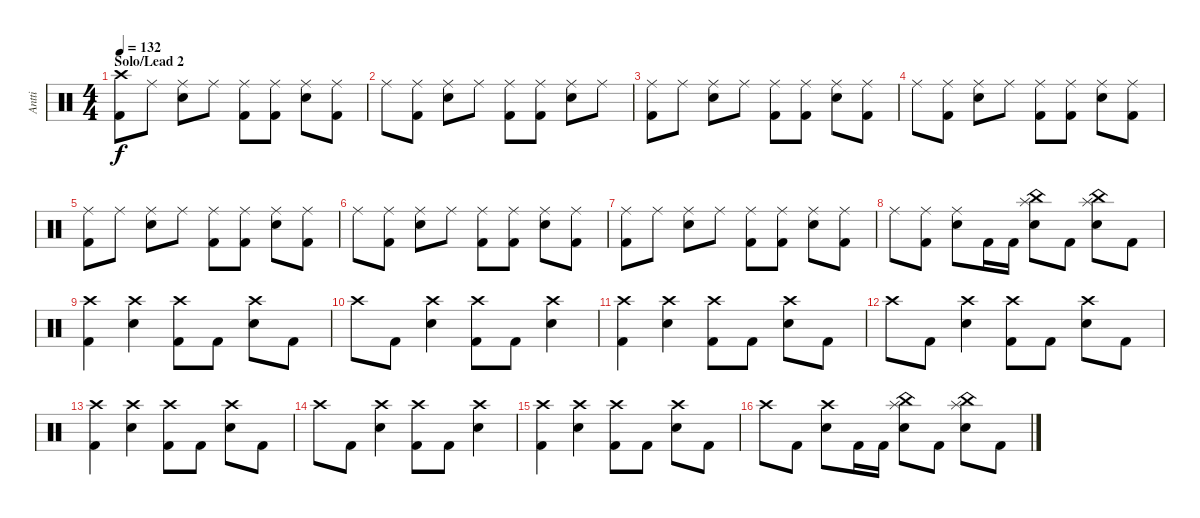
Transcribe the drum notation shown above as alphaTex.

\track ("Antti" "Antti") {instrument percussion}
\staff {score}
\articulation defaults
\ts (4 4)
\section ("" "Solo/Lead 2")
\tempo 132
\clef neutral
\ks c
("Crash high (hit)" "Kick (hit) 2").8{dy f} "Ride (middle)".8 ("Ride (middle)" "Electric Snare (hit)").8 "Ride (middle)".8 ("Ride (middle)" "Kick (hit) 2").8 ("Ride (middle)" "Kick (hit) 2").8 ("Ride (middle)" "Electric Snare (hit)").8 ("Ride (middle)" "Kick (hit) 2").8 |
"Ride (middle)".8 ("Ride (middle)" "Kick (hit) 2").8 ("Ride (middle)" "Electric Snare (hit)").8 "Ride (middle)".8 ("Ride (middle)" "Kick (hit) 2").8 ("Ride (middle)" "Kick (hit) 2").8 ("Ride (middle)" "Electric Snare (hit)").8 "Ride (middle)".8 |
("Ride (middle)" "Kick (hit) 2").8 "Ride (middle)".8 ("Ride (middle)" "Electric Snare (hit)").8 "Ride (middle)".8 ("Ride (middle)" "Kick (hit) 2").8 ("Ride (middle)" "Kick (hit) 2").8 ("Ride (middle)" "Electric Snare (hit)").8 ("Ride (middle)" "Kick (hit) 2").8 |
"Ride (middle)".8 ("Ride (middle)" "Kick (hit) 2").8 ("Ride (middle)" "Electric Snare (hit)").8 "Ride (middle)".8 ("Ride (middle)" "Kick (hit) 2").8 ("Ride (middle)" "Kick (hit) 2").8 ("Ride (middle)" "Electric Snare (hit)").8 ("Ride (middle)" "Kick (hit) 2").8 |
("Ride (middle)" "Kick (hit) 2").8 "Ride (middle)".8 ("Ride (middle)" "Electric Snare (hit)").8 "Ride (middle)".8 ("Ride (middle)" "Kick (hit) 2").8 ("Ride (middle)" "Kick (hit) 2").8 ("Ride (middle)" "Electric Snare (hit)").8 ("Ride (middle)" "Kick (hit) 2").8 |
"Ride (middle)".8 ("Ride (middle)" "Kick (hit) 2").8 ("Ride (middle)" "Electric Snare (hit)").8 "Ride (middle)".8 ("Ride (middle)" "Kick (hit) 2").8 ("Ride (middle)" "Kick (hit) 2").8 ("Ride (middle)" "Electric Snare (hit)").8 ("Ride (middle)" "Kick (hit) 2").8 |
("Ride (middle)" "Kick (hit) 2").8 "Ride (middle)".8 ("Ride (middle)" "Electric Snare (hit)").8 "Ride (middle)".8 ("Ride (middle)" "Kick (hit) 2").8 ("Ride (middle)" "Kick (hit) 2").8 ("Ride (middle)" "Electric Snare (hit)").8 ("Ride (middle)" "Kick (hit) 2").8 |
"Ride (middle)".8 ("Ride (middle)" "Kick (hit) 2").8 ("Ride (middle)" "Electric Snare (hit)").8 "Kick (hit) 2".16 "Kick (hit) 2".16 ("China (hit)" "Splash (hit)" "Electric Snare (hit)").8 "Kick (hit) 2".8 ("China (hit)" "Splash (hit)" "Electric Snare (hit)").8 "Kick (hit) 2".8 |
("Crash high (hit)" "Kick (hit) 2").4 ("Crash high (hit)" "Electric Snare (hit)").4 ("Crash high (hit)" "Kick (hit) 2").8 "Kick (hit) 2".8 ("Crash high (hit)" "Electric Snare (hit)").8 "Kick (hit) 2".8 |
"Crash high (hit)".8 "Kick (hit) 2".8 ("Crash high (hit)" "Electric Snare (hit)").4 ("Crash high (hit)" "Kick (hit) 2").8 "Kick (hit) 2".8 ("Crash high (hit)" "Electric Snare (hit)").4 |
("Crash high (hit)" "Kick (hit) 2").4 ("Crash high (hit)" "Electric Snare (hit)").4 ("Crash high (hit)" "Kick (hit) 2").8 "Kick (hit) 2".8 ("Crash high (hit)" "Electric Snare (hit)").8 "Kick (hit) 2".8 |
"Crash high (hit)".8 "Kick (hit) 2".8 ("Crash high (hit)" "Electric Snare (hit)").4 ("Crash high (hit)" "Kick (hit) 2").8 "Kick (hit) 2".8 ("Crash high (hit)" "Electric Snare (hit)").8 "Kick (hit) 2".8 |
("Crash high (hit)" "Kick (hit) 2").4 ("Crash high (hit)" "Electric Snare (hit)").4 ("Crash high (hit)" "Kick (hit) 2").8 "Kick (hit) 2".8 ("Crash high (hit)" "Electric Snare (hit)").8 "Kick (hit) 2".8 |
"Crash high (hit)".8 "Kick (hit) 2".8 ("Crash high (hit)" "Electric Snare (hit)").4 ("Crash high (hit)" "Kick (hit) 2").8 "Kick (hit) 2".8 ("Crash high (hit)" "Electric Snare (hit)").4 |
("Crash high (hit)" "Kick (hit) 2").4 ("Crash high (hit)" "Electric Snare (hit)").4 ("Crash high (hit)" "Kick (hit) 2").8 "Kick (hit) 2".8 ("Crash high (hit)" "Electric Snare (hit)").8 "Kick (hit) 2".8 |
"Crash high (hit)".8 "Kick (hit) 2".8 ("Crash high (hit)" "Electric Snare (hit)").8 "Kick (hit) 2".16 "Kick (hit) 2".16 ("China (hit)" "Splash (hit)" "Electric Snare (hit)").8 "Kick (hit) 2".8 ("China (hit)" "Splash (hit)" "Electric Snare (hit)").8 "Kick (hit) 2".8
